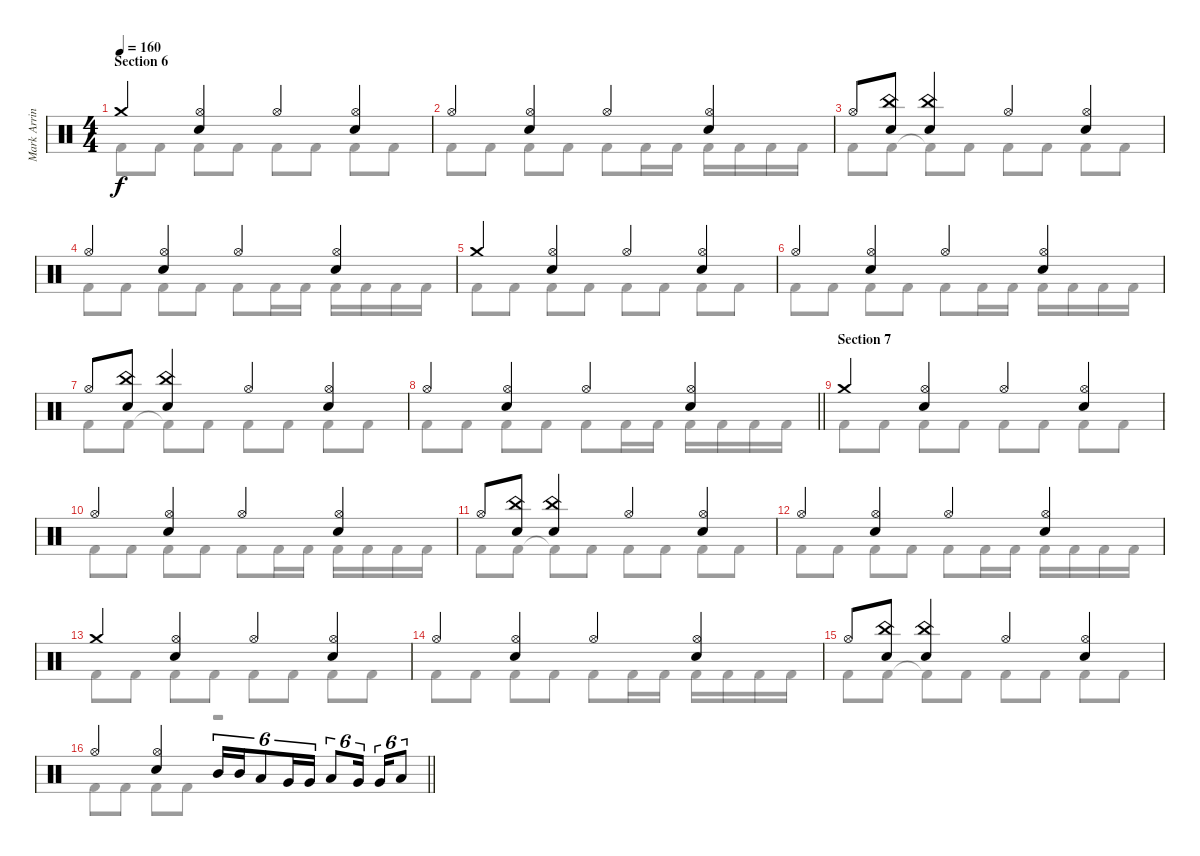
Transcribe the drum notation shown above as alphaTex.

\track ("Mark Arrington – drums" "Mark Arrin") {instrument percussion}
\staff {score}
\articulation defaults
\voice
\ts (4 4)
\section ("" "Section 6")
\tempo 160
\clef neutral
\ks c "Crash medium (hit)".4{dy f}
("Hi-Hat (open)" "Electric Snare (hit)").4 "Hi-Hat (open)".4 ("Hi-Hat (open)" "Electric Snare (hit)").4 |
"Hi-Hat (open)".4 ("Hi-Hat (open)" "Electric Snare (hit)").4 "Hi-Hat (open)".4 ("Hi-Hat (open)" "Electric Snare (hit)").4 |
"Hi-Hat (open)".8 ("China (hit)" "Electric Snare (hit)").8 ("China (hit)" "Electric Snare (hit)").4 "Hi-Hat (open)".4 ("Hi-Hat (open)" "Electric Snare (hit)").4 |
"Hi-Hat (open)".4 ("Hi-Hat (open)" "Electric Snare (hit)").4 "Hi-Hat (open)".4 ("Hi-Hat (open)" "Electric Snare (hit)").4 |
"Crash medium (hit)".4 ("Hi-Hat (open)" "Electric Snare (hit)").4 "Hi-Hat (open)".4 ("Hi-Hat (open)" "Electric Snare (hit)").4 |
"Hi-Hat (open)".4 ("Hi-Hat (open)" "Electric Snare (hit)").4 "Hi-Hat (open)".4 ("Hi-Hat (open)" "Electric Snare (hit)").4 |
"Hi-Hat (open)".8 ("China (hit)" "Electric Snare (hit)").8 ("China (hit)" "Electric Snare (hit)").4 "Hi-Hat (open)".4 ("Hi-Hat (open)" "Electric Snare (hit)").4 |
\barLineRight lightlight "Hi-Hat (open)".4
("Hi-Hat (open)" "Electric Snare (hit)").4 "Hi-Hat (open)".4 ("Hi-Hat (open)" "Electric Snare (hit)").4 |
\section ("" "Section 7")
"Crash medium (hit)".4 ("Hi-Hat (open)" "Electric Snare (hit)").4 "Hi-Hat (open)".4 ("Hi-Hat (open)" "Electric Snare (hit)").4 |
"Hi-Hat (open)".4 ("Hi-Hat (open)" "Electric Snare (hit)").4 "Hi-Hat (open)".4 ("Hi-Hat (open)" "Electric Snare (hit)").4 |
"Hi-Hat (open)".8 ("China (hit)" "Electric Snare (hit)").8 ("China (hit)" "Electric Snare (hit)").4 "Hi-Hat (open)".4 ("Hi-Hat (open)" "Electric Snare (hit)").4 |
"Hi-Hat (open)".4 ("Hi-Hat (open)" "Electric Snare (hit)").4 "Hi-Hat (open)".4 ("Hi-Hat (open)" "Electric Snare (hit)").4 |
"Crash medium (hit)".4 ("Hi-Hat (open)" "Electric Snare (hit)").4 "Hi-Hat (open)".4 ("Hi-Hat (open)" "Electric Snare (hit)").4 |
"Hi-Hat (open)".4 ("Hi-Hat (open)" "Electric Snare (hit)").4 "Hi-Hat (open)".4 ("Hi-Hat (open)" "Electric Snare (hit)").4 |
"Hi-Hat (open)".8 ("China (hit)" "Electric Snare (hit)").8 ("China (hit)" "Electric Snare (hit)").4 "Hi-Hat (open)".4 ("Hi-Hat (open)" "Electric Snare (hit)").4 |
\barLineRight lightlight "Hi-Hat (open)".4
("Hi-Hat (open)" "Electric Snare (hit)").4 "Mid Tom (hit)".16{tu (6 4)} "Mid Tom (hit)".16{tu (6 4)} "Low Tom (hit)".8{tu (6 4)} "Very Low Tom (hit)".16{tu (6 4)} "Very Low Tom (hit)".16{tu (6 4)} "Low Tom (hit)".8{tu (6 4)} "Very Low Tom (hit)".16{tu (6 4)} "Very Low Tom (hit)".16{tu (6 4)} "Low Floor Tom (hit)".8{tu (6 4)}
\voice
\clef neutral
\ottava regular
\simile none
\ks c "Kick (hit) 2".8{dy f} "Kick (hit) 2".8 "Kick (hit) 2".8 "Kick (hit) 2".8 "Kick (hit) 2".8 "Kick (hit) 2".8 "Kick (hit) 2".8 "Kick (hit) 2".8
|
"Kick (hit) 2".8 "Kick (hit) 2".8 "Kick (hit) 2".8 "Kick (hit) 2".8 "Kick (hit) 2".8 "Kick (hit) 2".16 "Kick (hit) 2".16 "Kick (hit) 2".16 "Kick (hit) 2".16 "Kick (hit) 2".16 "Kick (hit) 2".16 |
"Kick (hit) 2".8 "Kick (hit) 2".8 "Kick (hit) 2"{t}.8 "Kick (hit) 2".8 "Kick (hit) 2".8 "Kick (hit) 2".8 "Kick (hit) 2".8 "Kick (hit) 2".8 |
"Kick (hit) 2".8 "Kick (hit) 2".8 "Kick (hit) 2".8 "Kick (hit) 2".8 "Kick (hit) 2".8 "Kick (hit) 2".16 "Kick (hit) 2".16 "Kick (hit) 2".16 "Kick (hit) 2".16 "Kick (hit) 2".16 "Kick (hit) 2".16 |
"Kick (hit) 2".8 "Kick (hit) 2".8 "Kick (hit) 2".8 "Kick (hit) 2".8 "Kick (hit) 2".8 "Kick (hit) 2".8 "Kick (hit) 2".8 "Kick (hit) 2".8 |
"Kick (hit) 2".8 "Kick (hit) 2".8 "Kick (hit) 2".8 "Kick (hit) 2".8 "Kick (hit) 2".8 "Kick (hit) 2".16 "Kick (hit) 2".16 "Kick (hit) 2".16 "Kick (hit) 2".16 "Kick (hit) 2".16 "Kick (hit) 2".16 |
"Kick (hit) 2".8 "Kick (hit) 2".8 "Kick (hit) 2"{t}.8 "Kick (hit) 2".8 "Kick (hit) 2".8 "Kick (hit) 2".8 "Kick (hit) 2".8 "Kick (hit) 2".8 |
\barLineRight lightlight "Kick (hit) 2".8 "Kick (hit) 2".8 "Kick (hit) 2".8 "Kick (hit) 2".8 "Kick (hit) 2".8 "Kick (hit) 2".16 "Kick (hit) 2".16 "Kick (hit) 2".16 "Kick (hit) 2".16 "Kick (hit) 2".16 "Kick (hit) 2".16
|
"Kick (hit) 2".8 "Kick (hit) 2".8 "Kick (hit) 2".8 "Kick (hit) 2".8 "Kick (hit) 2".8 "Kick (hit) 2".8 "Kick (hit) 2".8 "Kick (hit) 2".8 |
"Kick (hit) 2".8 "Kick (hit) 2".8 "Kick (hit) 2".8 "Kick (hit) 2".8 "Kick (hit) 2".8 "Kick (hit) 2".16 "Kick (hit) 2".16 "Kick (hit) 2".16 "Kick (hit) 2".16 "Kick (hit) 2".16 "Kick (hit) 2".16 |
"Kick (hit) 2".8 "Kick (hit) 2".8 "Kick (hit) 2"{t}.8 "Kick (hit) 2".8 "Kick (hit) 2".8 "Kick (hit) 2".8 "Kick (hit) 2".8 "Kick (hit) 2".8 |
"Kick (hit) 2".8 "Kick (hit) 2".8 "Kick (hit) 2".8 "Kick (hit) 2".8 "Kick (hit) 2".8 "Kick (hit) 2".16 "Kick (hit) 2".16 "Kick (hit) 2".16 "Kick (hit) 2".16 "Kick (hit) 2".16 "Kick (hit) 2".16 |
"Kick (hit) 2".8 "Kick (hit) 2".8 "Kick (hit) 2".8 "Kick (hit) 2".8 "Kick (hit) 2".8 "Kick (hit) 2".8 "Kick (hit) 2".8 "Kick (hit) 2".8 |
"Kick (hit) 2".8 "Kick (hit) 2".8 "Kick (hit) 2".8 "Kick (hit) 2".8 "Kick (hit) 2".8 "Kick (hit) 2".16 "Kick (hit) 2".16 "Kick (hit) 2".16 "Kick (hit) 2".16 "Kick (hit) 2".16 "Kick (hit) 2".16 |
"Kick (hit) 2".8 "Kick (hit) 2".8 "Kick (hit) 2"{t}.8 "Kick (hit) 2".8 "Kick (hit) 2".8 "Kick (hit) 2".8 "Kick (hit) 2".8 "Kick (hit) 2".8 |
\barLineRight lightlight "Kick (hit) 2".8 "Kick (hit) 2".8 "Kick (hit) 2".8 "Kick (hit) 2".8
r.2
